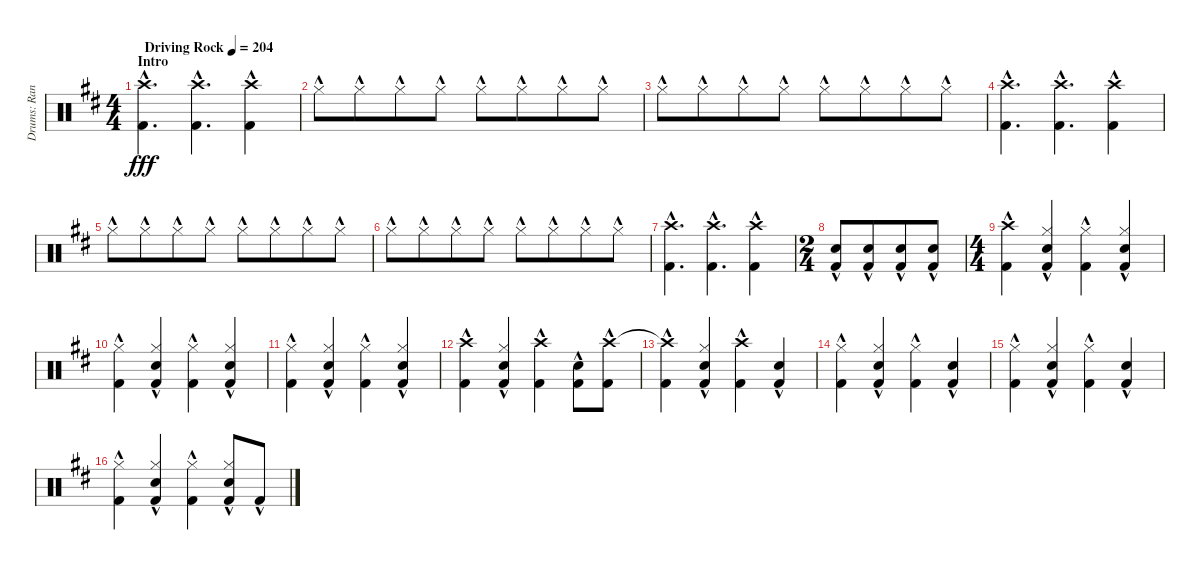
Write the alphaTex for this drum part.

\track ("Drums: Randy" "Drums: Ran") {instrument percussion}
\staff {score}
\articulation defaults
\ts (4 4)
\section ("" "Intro")
\tempo (204 "Driving Rock")
\clef neutral
\ks d
("Crash high (hit)"{hac} "Kick (hit) 2"{hac}).4{d dy fff} ("Crash high (hit)"{hac} "Kick (hit) 2"{hac}).4{d} ("Crash high (hit)"{hac} "Kick (hit) 2"{hac}).4 |
"Hi-Hat (closed)"{hac}.8 "Hi-Hat (closed)"{hac}.8{beam merge} "Hi-Hat (closed)"{hac}.8 "Hi-Hat (closed)"{hac}.8 "Hi-Hat (closed)"{hac}.8 "Hi-Hat (closed)"{hac}.8{beam merge} "Hi-Hat (closed)"{hac}.8 "Hi-Hat (closed)"{hac}.8 |
"Hi-Hat (closed)"{hac}.8 "Hi-Hat (closed)"{hac}.8{beam merge} "Hi-Hat (closed)"{hac}.8 "Hi-Hat (closed)"{hac}.8 "Hi-Hat (closed)"{hac}.8 "Hi-Hat (closed)"{hac}.8{beam merge} "Hi-Hat (closed)"{hac}.8 "Hi-Hat (closed)"{hac}.8 |
("Crash high (hit)"{hac} "Kick (hit) 2"{hac}).4{d} ("Crash high (hit)"{hac} "Kick (hit) 2"{hac}).4{d} ("Crash high (hit)"{hac} "Kick (hit) 2"{hac}).4 |
"Hi-Hat (closed)"{hac}.8 "Hi-Hat (closed)"{hac}.8{beam merge} "Hi-Hat (closed)"{hac}.8 "Hi-Hat (closed)"{hac}.8 "Hi-Hat (closed)"{hac}.8 "Hi-Hat (closed)"{hac}.8{beam merge} "Hi-Hat (closed)"{hac}.8 "Hi-Hat (closed)"{hac}.8 |
"Hi-Hat (closed)"{hac}.8 "Hi-Hat (closed)"{hac}.8{beam merge} "Hi-Hat (closed)"{hac}.8 "Hi-Hat (closed)"{hac}.8 "Hi-Hat (closed)"{hac}.8 "Hi-Hat (closed)"{hac}.8{beam merge} "Hi-Hat (closed)"{hac}.8 "Hi-Hat (closed)"{hac}.8 |
("Crash high (hit)"{hac} "Kick (hit) 2"{hac}).4{d} ("Crash high (hit)"{hac} "Kick (hit) 2"{hac}).4{d} ("Crash high (hit)"{hac} "Kick (hit) 2"{hac}).4 |
\ts (2 4)
("Snare (hit) 2"{hac} "Kick (hit) 2"{hac}).8{beam merge} ("Snare (hit) 2"{hac} "Kick (hit) 2"{hac}).8{beam merge} ("Snare (hit) 2"{hac} "Kick (hit) 2"{hac}).8{beam merge} ("Snare (hit) 2"{hac} "Kick (hit) 2"{hac}).8 |
\ts (4 4)
("Crash high (hit)"{hac} "Kick (hit) 2"{hac}).4 ("Hi-Hat (closed)"{hac} "Snare (hit) 2"{hac} "Kick (hit) 2"{hac}).4 ("Hi-Hat (closed)"{hac} "Kick (hit) 2"{hac}).4 ("Hi-Hat (closed)"{hac} "Snare (hit) 2"{hac} "Kick (hit) 2"{hac}).4 |
("Hi-Hat (closed)"{hac} "Kick (hit) 2"{hac}).4 ("Hi-Hat (closed)"{hac} "Snare (hit) 2"{hac} "Kick (hit) 2"{hac}).4 ("Hi-Hat (closed)"{hac} "Kick (hit) 2"{hac}).4 ("Hi-Hat (closed)"{hac} "Snare (hit) 2"{hac} "Kick (hit) 2"{hac}).4 |
("Hi-Hat (closed)"{hac} "Kick (hit) 2"{hac}).4 ("Hi-Hat (closed)"{hac} "Snare (hit) 2"{hac} "Kick (hit) 2"{hac}).4 ("Hi-Hat (closed)"{hac} "Kick (hit) 2"{hac}).4 ("Hi-Hat (closed)"{hac} "Snare (hit) 2"{hac} "Kick (hit) 2"{hac}).4 |
("Crash high (hit)"{hac} "Kick (hit) 2"{hac}).4 ("Hi-Hat (closed)"{hac} "Snare (hit) 2"{hac} "Kick (hit) 2"{hac}).4 ("Crash high (hit)"{hac} "Kick (hit) 2"{hac}).4 ("Snare (hit) 2"{hac} "Kick (hit) 2"{hac}).8 ("Crash high (hit)"{hac} "Kick (hit) 2"{hac}).8 |
("Crash high (hit)"{t} "Kick (hit) 2"{hac}).4 ("Hi-Hat (closed)"{hac} "Snare (hit) 2"{hac} "Kick (hit) 2"{hac}).4 ("Crash high (hit)"{hac} "Kick (hit) 2"{hac}).4 ("Snare (hit) 2"{hac} "Kick (hit) 2"{hac}).4 |
("Hi-Hat (closed)"{hac} "Kick (hit) 2"{hac}).4 ("Hi-Hat (closed)"{hac} "Snare (hit) 2"{hac} "Kick (hit) 2"{hac}).4 ("Hi-Hat (closed)"{hac} "Kick (hit) 2"{hac}).4 ("Snare (hit) 2"{hac} "Kick (hit) 2"{hac}).4 |
("Hi-Hat (closed)"{hac} "Kick (hit) 2"{hac}).4 ("Hi-Hat (closed)"{hac} "Snare (hit) 2"{hac} "Kick (hit) 2"{hac}).4 ("Hi-Hat (closed)"{hac} "Kick (hit) 2"{hac}).4 ("Snare (hit) 2"{hac} "Kick (hit) 2"{hac}).4 |
("Hi-Hat (closed)"{hac} "Kick (hit) 2"{hac}).4 ("Hi-Hat (closed)"{hac} "Snare (hit) 2"{hac} "Kick (hit) 2"{hac}).4 ("Hi-Hat (closed)"{hac} "Kick (hit) 2"{hac}).4 ("Hi-Hat (closed)"{hac} "Snare (hit) 2"{hac} "Kick (hit) 2"{hac}).8 "Kick (hit) 2"{hac}.8
